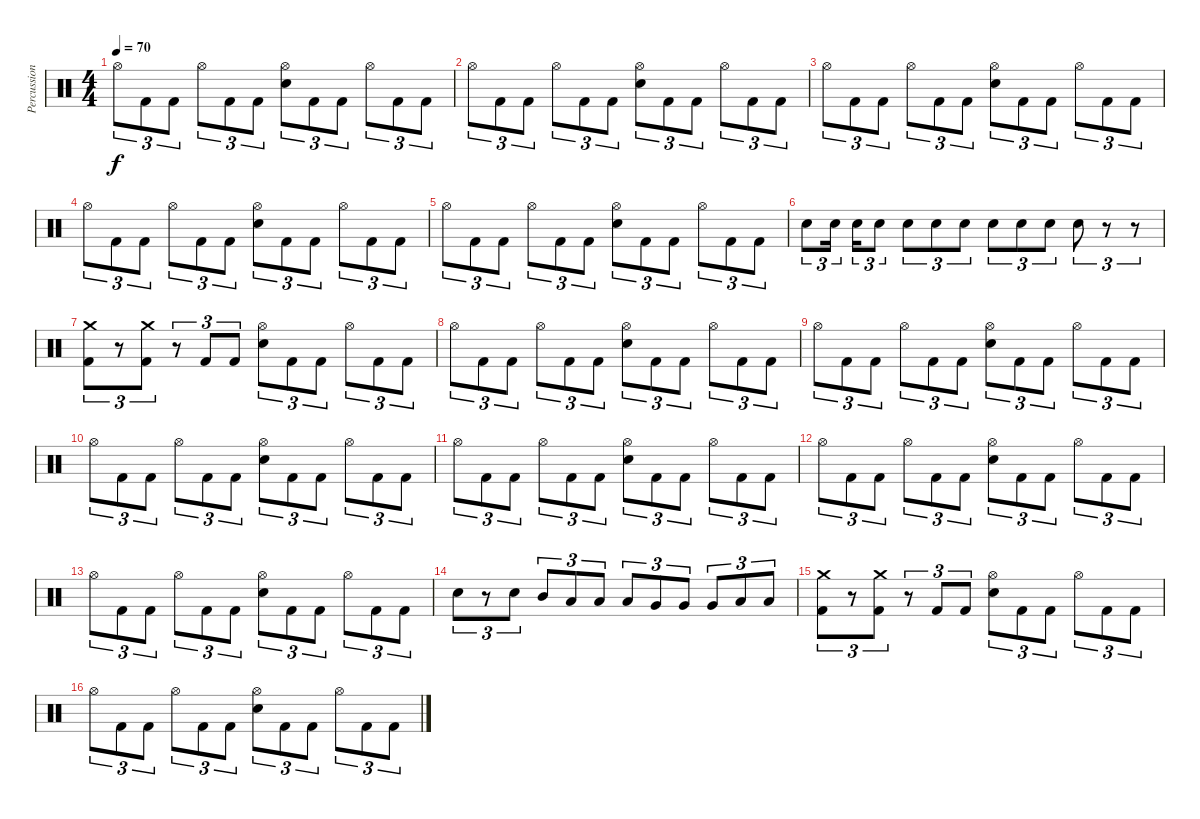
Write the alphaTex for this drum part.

\track ("Percussion" "Percussion") {instrument percussion}
\staff {score}
\articulation defaults
\ts (4 4)
\tempo 70
\clef neutral
\ks c "Hi-Hat (open)".8{tu (3 2) dy f} "Kick (hit) 2".8{tu (3 2)} "Kick (hit) 2".8{tu (3 2)} "Hi-Hat (open)".8{tu (3 2)} "Kick (hit) 2".8{tu (3 2)} "Kick (hit) 2".8{tu (3 2)}
("Hi-Hat (open)" "Electric Snare (hit)").8{tu (3 2)} "Kick (hit) 2".8{tu (3 2)} "Kick (hit) 2".8{tu (3 2)} "Hi-Hat (open)".8{tu (3 2)} "Kick (hit) 2".8{tu (3 2)} "Kick (hit) 2".8{tu (3 2)} |
"Hi-Hat (open)".8{tu (3 2)} "Kick (hit) 2".8{tu (3 2)} "Kick (hit) 2".8{tu (3 2)} "Hi-Hat (open)".8{tu (3 2)} "Kick (hit) 2".8{tu (3 2)} "Kick (hit) 2".8{tu (3 2)} ("Hi-Hat (open)" "Electric Snare (hit)").8{tu (3 2)} "Kick (hit) 2".8{tu (3 2)} "Kick (hit) 2".8{tu (3 2)} "Hi-Hat (open)".8{tu (3 2)} "Kick (hit) 2".8{tu (3 2)} "Kick (hit) 2".8{tu (3 2)} |
"Hi-Hat (open)".8{tu (3 2)} "Kick (hit) 2".8{tu (3 2)} "Kick (hit) 2".8{tu (3 2)} "Hi-Hat (open)".8{tu (3 2)} "Kick (hit) 2".8{tu (3 2)} "Kick (hit) 2".8{tu (3 2)} ("Hi-Hat (open)" "Electric Snare (hit)").8{tu (3 2)} "Kick (hit) 2".8{tu (3 2)} "Kick (hit) 2".8{tu (3 2)} "Hi-Hat (open)".8{tu (3 2)} "Kick (hit) 2".8{tu (3 2)} "Kick (hit) 2".8{tu (3 2)} |
"Hi-Hat (open)".8{tu (3 2)} "Kick (hit) 2".8{tu (3 2)} "Kick (hit) 2".8{tu (3 2)} "Hi-Hat (open)".8{tu (3 2)} "Kick (hit) 2".8{tu (3 2)} "Kick (hit) 2".8{tu (3 2)} ("Hi-Hat (open)" "Electric Snare (hit)").8{tu (3 2)} "Kick (hit) 2".8{tu (3 2)} "Kick (hit) 2".8{tu (3 2)} "Hi-Hat (open)".8{tu (3 2)} "Kick (hit) 2".8{tu (3 2)} "Kick (hit) 2".8{tu (3 2)} |
"Hi-Hat (open)".8{tu (3 2)} "Kick (hit) 2".8{tu (3 2)} "Kick (hit) 2".8{tu (3 2)} "Hi-Hat (open)".8{tu (3 2)} "Kick (hit) 2".8{tu (3 2)} "Kick (hit) 2".8{tu (3 2)} ("Hi-Hat (open)" "Electric Snare (hit)").8{tu (3 2)} "Kick (hit) 2".8{tu (3 2)} "Kick (hit) 2".8{tu (3 2)} "Hi-Hat (open)".8{tu (3 2)} "Kick (hit) 2".8{tu (3 2)} "Kick (hit) 2".8{tu (3 2)} |
"Electric Snare (hit)".8{tu (3 2)} "Electric Snare (hit)".16{tu (3 2) beam splitsecondary} "Electric Snare (hit)".16{tu (3 2)} "Electric Snare (hit)".8{tu (3 2)} "Electric Snare (hit)".8{tu (3 2)} "Electric Snare (hit)".8{tu (3 2)} "Electric Snare (hit)".8{tu (3 2)} "Electric Snare (hit)".8{tu (3 2)} "Electric Snare (hit)".8{tu (3 2)} "Electric Snare (hit)".8{tu (3 2)} "Electric Snare (hit)".8{tu (3 2)} r.8{tu (3 2)} r.8{tu (3 2)} |
("Crash medium (hit)" "Kick (hit) 2").8{tu (3 2)} r.8{tu (3 2)} ("Crash medium (hit)" "Kick (hit) 2").8{tu (3 2)} r.8{tu (3 2)} "Kick (hit) 2".8{tu (3 2)} "Kick (hit) 2".8{tu (3 2)} ("Hi-Hat (open)" "Electric Snare (hit)").8{tu (3 2)} "Kick (hit) 2".8{tu (3 2)} "Kick (hit) 2".8{tu (3 2)} "Hi-Hat (open)".8{tu (3 2)} "Kick (hit) 2".8{tu (3 2)} "Kick (hit) 2".8{tu (3 2)} |
"Hi-Hat (open)".8{tu (3 2)} "Kick (hit) 2".8{tu (3 2)} "Kick (hit) 2".8{tu (3 2)} "Hi-Hat (open)".8{tu (3 2)} "Kick (hit) 2".8{tu (3 2)} "Kick (hit) 2".8{tu (3 2)} ("Hi-Hat (open)" "Electric Snare (hit)").8{tu (3 2)} "Kick (hit) 2".8{tu (3 2)} "Kick (hit) 2".8{tu (3 2)} "Hi-Hat (open)".8{tu (3 2)} "Kick (hit) 2".8{tu (3 2)} "Kick (hit) 2".8{tu (3 2)} |
"Hi-Hat (open)".8{tu (3 2)} "Kick (hit) 2".8{tu (3 2)} "Kick (hit) 2".8{tu (3 2)} "Hi-Hat (open)".8{tu (3 2)} "Kick (hit) 2".8{tu (3 2)} "Kick (hit) 2".8{tu (3 2)} ("Hi-Hat (open)" "Electric Snare (hit)").8{tu (3 2)} "Kick (hit) 2".8{tu (3 2)} "Kick (hit) 2".8{tu (3 2)} "Hi-Hat (open)".8{tu (3 2)} "Kick (hit) 2".8{tu (3 2)} "Kick (hit) 2".8{tu (3 2)} |
"Hi-Hat (open)".8{tu (3 2)} "Kick (hit) 2".8{tu (3 2)} "Kick (hit) 2".8{tu (3 2)} "Hi-Hat (open)".8{tu (3 2)} "Kick (hit) 2".8{tu (3 2)} "Kick (hit) 2".8{tu (3 2)} ("Hi-Hat (open)" "Electric Snare (hit)").8{tu (3 2)} "Kick (hit) 2".8{tu (3 2)} "Kick (hit) 2".8{tu (3 2)} "Hi-Hat (open)".8{tu (3 2)} "Kick (hit) 2".8{tu (3 2)} "Kick (hit) 2".8{tu (3 2)} |
"Hi-Hat (open)".8{tu (3 2)} "Kick (hit) 2".8{tu (3 2)} "Kick (hit) 2".8{tu (3 2)} "Hi-Hat (open)".8{tu (3 2)} "Kick (hit) 2".8{tu (3 2)} "Kick (hit) 2".8{tu (3 2)} ("Hi-Hat (open)" "Electric Snare (hit)").8{tu (3 2)} "Kick (hit) 2".8{tu (3 2)} "Kick (hit) 2".8{tu (3 2)} "Hi-Hat (open)".8{tu (3 2)} "Kick (hit) 2".8{tu (3 2)} "Kick (hit) 2".8{tu (3 2)} |
"Hi-Hat (open)".8{tu (3 2)} "Kick (hit) 2".8{tu (3 2)} "Kick (hit) 2".8{tu (3 2)} "Hi-Hat (open)".8{tu (3 2)} "Kick (hit) 2".8{tu (3 2)} "Kick (hit) 2".8{tu (3 2)} ("Hi-Hat (open)" "Electric Snare (hit)").8{tu (3 2)} "Kick (hit) 2".8{tu (3 2)} "Kick (hit) 2".8{tu (3 2)} "Hi-Hat (open)".8{tu (3 2)} "Kick (hit) 2".8{tu (3 2)} "Kick (hit) 2".8{tu (3 2)} |
"Hi-Hat (open)".8{tu (3 2)} "Kick (hit) 2".8{tu (3 2)} "Kick (hit) 2".8{tu (3 2)} "Hi-Hat (open)".8{tu (3 2)} "Kick (hit) 2".8{tu (3 2)} "Kick (hit) 2".8{tu (3 2)} ("Hi-Hat (open)" "Electric Snare (hit)").8{tu (3 2)} "Kick (hit) 2".8{tu (3 2)} "Kick (hit) 2".8{tu (3 2)} "Hi-Hat (open)".8{tu (3 2)} "Kick (hit) 2".8{tu (3 2)} "Kick (hit) 2".8{tu (3 2)} |
"Electric Snare (hit)".8{tu (3 2)} r.8{tu (3 2)} "Electric Snare (hit)".8{tu (3 2)} "Mid Tom (hit)".8{tu (3 2)} "Low Tom (hit)".8{tu (3 2)} "Low Tom (hit)".8{tu (3 2)} "Low Tom (hit)".8{tu (3 2)} "Very Low Tom (hit)".8{tu (3 2)} "Very Low Tom (hit)".8{tu (3 2)} "Very Low Tom (hit)".8{tu (3 2)} "Low Floor Tom (hit)".8{tu (3 2)} "Low Floor Tom (hit)".8{tu (3 2)} |
("Crash medium (hit)" "Kick (hit) 2").8{tu (3 2)} r.8{tu (3 2)} ("Crash medium (hit)" "Kick (hit) 2").8{tu (3 2)} r.8{tu (3 2)} "Kick (hit) 2".8{tu (3 2)} "Kick (hit) 2".8{tu (3 2)} ("Hi-Hat (open)" "Electric Snare (hit)").8{tu (3 2)} "Kick (hit) 2".8{tu (3 2)} "Kick (hit) 2".8{tu (3 2)} "Hi-Hat (open)".8{tu (3 2)} "Kick (hit) 2".8{tu (3 2)} "Kick (hit) 2".8{tu (3 2)} |
"Hi-Hat (open)".8{tu (3 2)} "Kick (hit) 2".8{tu (3 2)} "Kick (hit) 2".8{tu (3 2)} "Hi-Hat (open)".8{tu (3 2)} "Kick (hit) 2".8{tu (3 2)} "Kick (hit) 2".8{tu (3 2)} ("Hi-Hat (open)" "Electric Snare (hit)").8{tu (3 2)} "Kick (hit) 2".8{tu (3 2)} "Kick (hit) 2".8{tu (3 2)} "Hi-Hat (open)".8{tu (3 2)} "Kick (hit) 2".8{tu (3 2)} "Kick (hit) 2".8{tu (3 2)}
